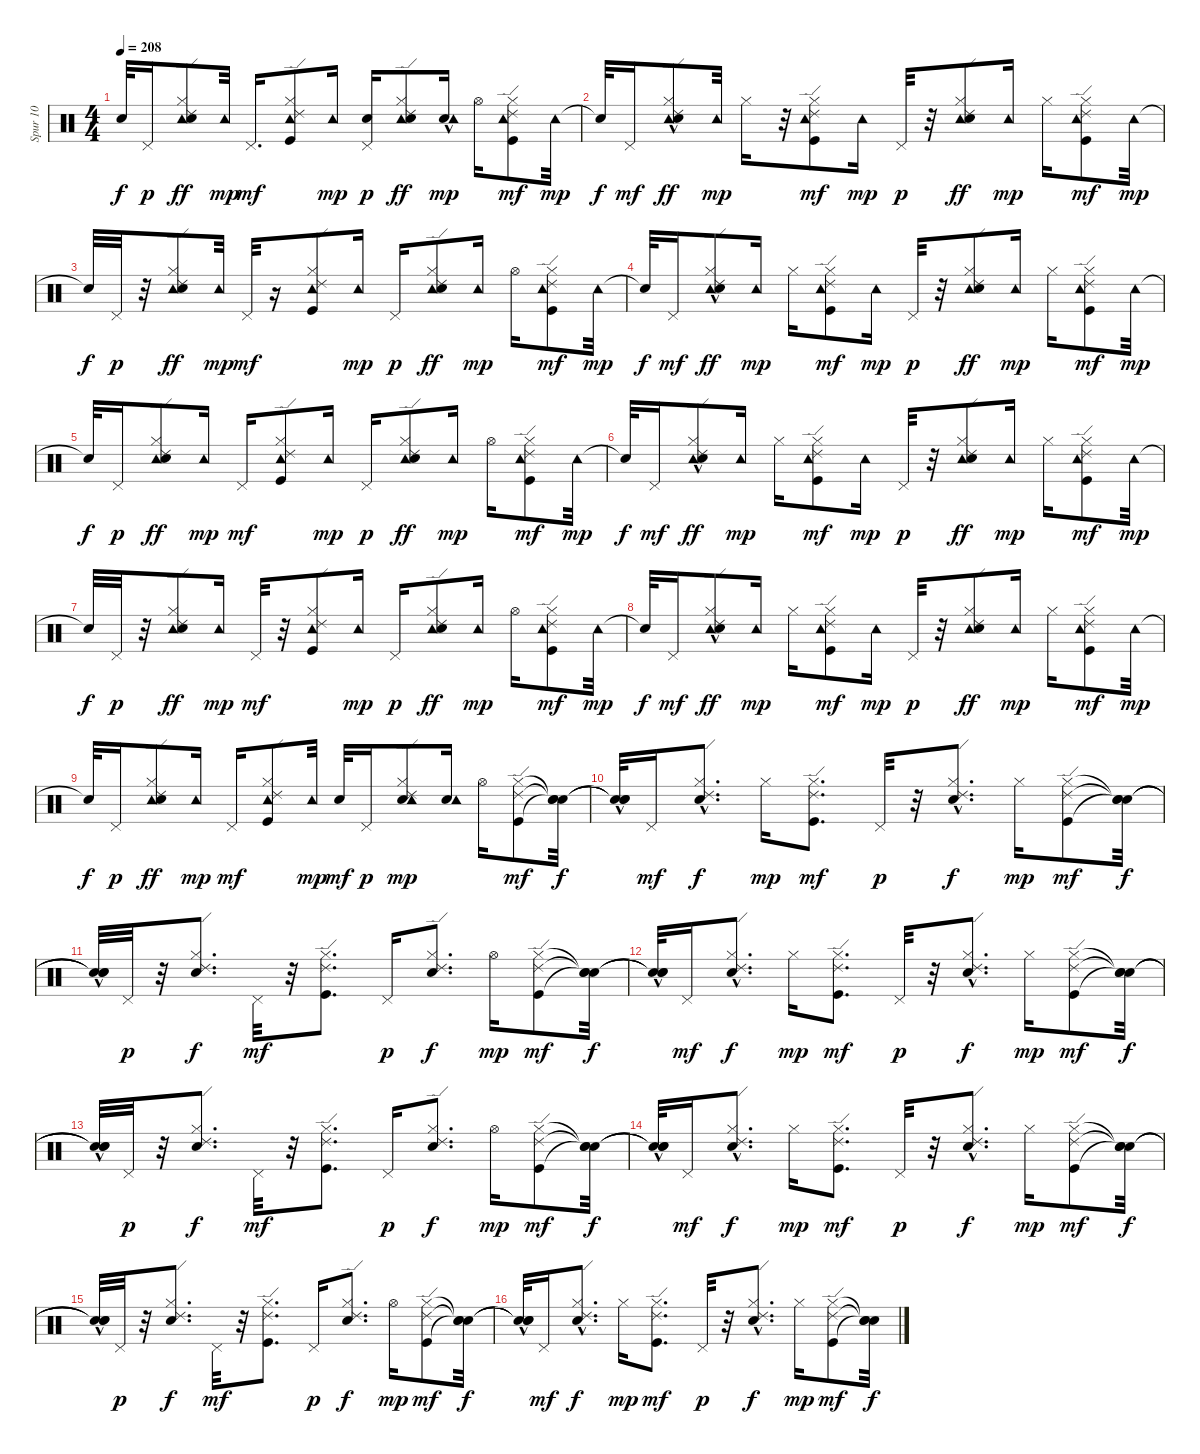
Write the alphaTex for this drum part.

\track ("Spur 10" "Spur 10") {instrument percussion}
\staff {score}
\articulation defaults
\ts (4 4)
\tempo 208
\clef neutral
\ks c "Snare (hit)"{t}.32{dy f} "Pedal Hi-Hat (hit)".16{dy p}
("Tambourine (hit)" "Hi-Hat (closed)" "Electric Snare (hit)" "Ride (edge) 2").8{dy ff} "Tambourine (hit)".32{dy mp} "Pedal Hi-Hat (hit)".16{d dy mf} ("Tambourine (hit)" "Hi-Hat (closed)" "Kick (hit)" "Ride (edge) 2").8 "Tambourine (hit)".16{dy mp} ("Electric Snare (hit)" "Pedal Hi-Hat (hit)").16{dy p} ("Tambourine (hit)" "Hi-Hat (closed)" "Electric Snare (hit)" "Ride (edge) 2").8{dy ff} ("Electric Snare (hit)"{hac} "Tambourine (hit)").16{dy mp} "Hi-Hat (open)".16 ("Tambourine (hit)" "Hi-Hat (closed)" "Kick (hit)" "Ride (edge) 2").8{dy mf} "Tambourine (hit)".32{dy mp} |
"Snare (hit)"{t}.32{dy f} "Pedal Hi-Hat (hit)".16{dy mf} ("Tambourine (hit)" "Hi-Hat (closed)"{hac} "Electric Snare (hit)" "Ride (edge) 2").8{dy ff} "Tambourine (hit)".32{dy mp} "Hi-Hat (closed)".16 r.32 ("Tambourine (hit)" "Hi-Hat (closed)" "Kick (hit)" "Ride (edge) 2").8{dy mf} "Tambourine (hit)".16{dy mp} "Pedal Hi-Hat (hit)".32{dy p} r.32 ("Tambourine (hit)" "Hi-Hat (closed)" "Electric Snare (hit)" "Ride (edge) 2").8{dy ff} "Tambourine (hit)".16{dy mp} "Hi-Hat (closed)".16 ("Tambourine (hit)" "Hi-Hat (closed)" "Kick (hit)" "Ride (edge) 2").8{dy mf} "Tambourine (hit)".32{dy mp} |
"Snare (hit)"{t}.32{dy f} "Pedal Hi-Hat (hit)".32{dy p} r.32 ("Tambourine (hit)" "Hi-Hat (closed)" "Electric Snare (hit)" "Ride (edge) 2").8{dy ff} "Tambourine (hit)".32{dy mp} "Pedal Hi-Hat (hit)".32{dy mf} r.16 ("Tambourine (hit)" "Hi-Hat (closed)" "Kick (hit)" "Ride (edge) 2").8 "Tambourine (hit)".16{dy mp} "Pedal Hi-Hat (hit)".16{dy p} ("Tambourine (hit)" "Hi-Hat (closed)" "Electric Snare (hit)" "Ride (edge) 2").8{dy ff} "Tambourine (hit)".16{dy mp} "Hi-Hat (open)".16 ("Tambourine (hit)" "Hi-Hat (closed)" "Kick (hit)" "Ride (edge) 2").8{dy mf} "Tambourine (hit)".32{dy mp} |
"Snare (hit)"{t}.32{dy f} "Pedal Hi-Hat (hit)".16{dy mf} ("Tambourine (hit)" "Hi-Hat (closed)"{hac} "Electric Snare (hit)" "Ride (edge) 2").8{dy ff} "Tambourine (hit)".16{dy mp} "Hi-Hat (closed)".16 ("Tambourine (hit)" "Hi-Hat (closed)" "Kick (hit)" "Ride (edge) 2").8{dy mf} "Tambourine (hit)".16{dy mp} "Pedal Hi-Hat (hit)".32{dy p} r.32 ("Tambourine (hit)" "Hi-Hat (closed)" "Electric Snare (hit)" "Ride (edge) 2").8{dy ff} "Tambourine (hit)".16{dy mp} "Hi-Hat (closed)".16 ("Tambourine (hit)" "Hi-Hat (closed)" "Kick (hit)" "Ride (edge) 2").8{dy mf} "Tambourine (hit)".32{dy mp} |
"Snare (hit)"{t}.32{dy f} "Pedal Hi-Hat (hit)".16{dy p} ("Tambourine (hit)" "Hi-Hat (closed)" "Electric Snare (hit)" "Ride (edge) 2").8{dy ff} "Tambourine (hit)".16{dy mp} "Pedal Hi-Hat (hit)".16{dy mf} ("Tambourine (hit)" "Hi-Hat (closed)" "Kick (hit)" "Ride (edge) 2").8 "Tambourine (hit)".16{dy mp} "Pedal Hi-Hat (hit)".16{dy p} ("Tambourine (hit)" "Hi-Hat (closed)" "Electric Snare (hit)" "Ride (edge) 2").8{dy ff} "Tambourine (hit)".16{dy mp} "Hi-Hat (open)".16 ("Tambourine (hit)" "Hi-Hat (closed)" "Kick (hit)" "Ride (edge) 2").8{dy mf} "Tambourine (hit)".32{dy mp} |
"Snare (hit)"{t}.32{dy f} "Pedal Hi-Hat (hit)".16{dy mf} ("Tambourine (hit)" "Hi-Hat (closed)"{hac} "Electric Snare (hit)" "Ride (edge) 2").8{dy ff} "Tambourine (hit)".16{dy mp} "Hi-Hat (closed)".16 ("Tambourine (hit)" "Hi-Hat (closed)" "Kick (hit)" "Ride (edge) 2").8{dy mf} "Tambourine (hit)".16{dy mp} "Pedal Hi-Hat (hit)".32{dy p} r.32 ("Tambourine (hit)" "Hi-Hat (closed)" "Electric Snare (hit)" "Ride (edge) 2").8{dy ff} "Tambourine (hit)".16{dy mp} "Hi-Hat (closed)".16 ("Tambourine (hit)" "Hi-Hat (closed)" "Kick (hit)" "Ride (edge) 2").8{dy mf} "Tambourine (hit)".32{dy mp} |
"Snare (hit)"{t}.32{dy f} "Pedal Hi-Hat (hit)".32{dy p} r.32 ("Tambourine (hit)" "Hi-Hat (closed)" "Electric Snare (hit)" "Ride (edge) 2").8{dy ff} "Tambourine (hit)".16{dy mp} "Pedal Hi-Hat (hit)".32{dy mf} r.32 ("Tambourine (hit)" "Hi-Hat (closed)" "Kick (hit)" "Ride (edge) 2").8 "Tambourine (hit)".16{dy mp} "Pedal Hi-Hat (hit)".16{dy p} ("Tambourine (hit)" "Hi-Hat (closed)" "Electric Snare (hit)" "Ride (edge) 2").8{dy ff} "Tambourine (hit)".16{dy mp} "Hi-Hat (open)".16 ("Tambourine (hit)" "Hi-Hat (closed)" "Kick (hit)" "Ride (edge) 2").8{dy mf} "Tambourine (hit)".32{dy mp} |
"Snare (hit)"{t}.32{dy f} "Pedal Hi-Hat (hit)".16{dy mf} ("Tambourine (hit)" "Hi-Hat (closed)"{hac} "Electric Snare (hit)" "Ride (edge) 2").8{dy ff} "Tambourine (hit)".16{dy mp} "Hi-Hat (closed)".16 ("Tambourine (hit)" "Hi-Hat (closed)" "Kick (hit)" "Ride (edge) 2").8{dy mf} "Tambourine (hit)".16{dy mp} "Pedal Hi-Hat (hit)".32{dy p} r.32 ("Tambourine (hit)" "Hi-Hat (closed)" "Electric Snare (hit)" "Ride (edge) 2").8{dy ff} "Tambourine (hit)".16{dy mp} "Hi-Hat (closed)".16 ("Tambourine (hit)" "Hi-Hat (closed)" "Kick (hit)" "Ride (edge) 2").8{dy mf} "Tambourine (hit)".32{dy mp} |
"Snare (hit)"{t}.32{dy f} "Pedal Hi-Hat (hit)".16{dy p} ("Tambourine (hit)" "Hi-Hat (closed)" "Electric Snare (hit)" "Ride (edge) 2").8{dy ff} "Tambourine (hit)".16{dy mp} "Pedal Hi-Hat (hit)".16{dy mf} ("Tambourine (hit)" "Hi-Hat (closed)" "Kick (hit)" "Ride (edge) 2").8 "Tambourine (hit)".32{dy mp} "Electric Snare (hit)".32{dy mf} "Pedal Hi-Hat (hit)".16{dy p} ("Electric Snare (hit)" "Tambourine (hit)" "Hi-Hat (closed)" "Ride (edge) 2").8{dy mp} ("Electric Snare (hit)" "Tambourine (hit)").16 "Hi-Hat (open)".16 ("Hi-Hat (closed)" "Kick (hit)" "Ride (edge) 2").8{dy mf} ("Snare (hit)"{t} "Snare (hit)"{t} "Snare (hit)"{t}).32{dy f} |
("Snare (hit)"{hac t} "Snare (hit)"{t} "Snare (hit)"{hac t}).32 "Pedal Hi-Hat (hit)".16{dy mf} ("Snare (hit) 2" "Hi-Hat (closed)"{hac} "Ride (edge) 2").8{d dy f} "Hi-Hat (closed)".16{dy mp} ("Hi-Hat (closed)" "Kick (hit)" "Ride (edge) 2").8{d dy mf} "Pedal Hi-Hat (hit)".32{dy p} r.32 ("Snare (hit) 2" "Hi-Hat (closed)"{hac} "Ride (edge) 2").8{d dy f} "Hi-Hat (closed)".16{dy mp} ("Hi-Hat (closed)" "Kick (hit)" "Ride (edge) 2").8{dy mf} ("Snare (hit)"{t} "Snare (hit)"{t} "Snare (hit)"{t}).32{dy f} |
("Snare (hit)"{hac t} "Snare (hit)"{t} "Snare (hit)"{hac t}).32 "Pedal Hi-Hat (hit)".32{dy p} r.32 ("Snare (hit) 2" "Hi-Hat (closed)" "Ride (edge) 2").8{d dy f} "Pedal Hi-Hat (hit)".32{dy mf} r.32 ("Hi-Hat (closed)" "Kick (hit)" "Ride (edge) 2").8{d} "Pedal Hi-Hat (hit)".16{dy p} ("Snare (hit) 2" "Hi-Hat (closed)" "Ride (edge) 2").8{d dy f} "Hi-Hat (open)".16{dy mp} ("Hi-Hat (closed)" "Kick (hit)" "Ride (edge) 2").8{dy mf} ("Snare (hit)"{t} "Snare (hit)"{t} "Snare (hit)"{t}).32{dy f} |
("Snare (hit)"{hac t} "Snare (hit)"{t} "Snare (hit)"{hac t}).32 "Pedal Hi-Hat (hit)".16{dy mf} ("Snare (hit) 2" "Hi-Hat (closed)"{hac} "Ride (edge) 2").8{d dy f} "Hi-Hat (closed)".16{dy mp} ("Hi-Hat (closed)" "Kick (hit)" "Ride (edge) 2").8{d dy mf} "Pedal Hi-Hat (hit)".32{dy p} r.32 ("Snare (hit) 2" "Hi-Hat (closed)"{hac} "Ride (edge) 2").8{d dy f} "Hi-Hat (closed)".16{dy mp} ("Hi-Hat (closed)" "Kick (hit)" "Ride (edge) 2").8{dy mf} ("Snare (hit)"{t} "Snare (hit)"{t} "Snare (hit)"{t}).32{dy f} |
("Snare (hit)"{hac t} "Snare (hit)"{t} "Snare (hit)"{hac t}).32 "Pedal Hi-Hat (hit)".32{dy p} r.32 ("Snare (hit) 2" "Hi-Hat (closed)" "Ride (edge) 2").8{d dy f} "Pedal Hi-Hat (hit)".32{dy mf} r.32 ("Hi-Hat (closed)" "Kick (hit)" "Ride (edge) 2").8{d} "Pedal Hi-Hat (hit)".16{dy p} ("Snare (hit) 2" "Hi-Hat (closed)" "Ride (edge) 2").8{d dy f} "Hi-Hat (open)".16{dy mp} ("Hi-Hat (closed)" "Kick (hit)" "Ride (edge) 2").8{dy mf} ("Snare (hit)"{t} "Snare (hit)"{t} "Snare (hit)"{t}).32{dy f} |
("Snare (hit)"{hac t} "Snare (hit)"{t} "Snare (hit)"{hac t}).32 "Pedal Hi-Hat (hit)".16{dy mf} ("Snare (hit) 2" "Hi-Hat (closed)"{hac} "Ride (edge) 2").8{d dy f} "Hi-Hat (closed)".16{dy mp} ("Hi-Hat (closed)" "Kick (hit)" "Ride (edge) 2").8{d dy mf} "Pedal Hi-Hat (hit)".32{dy p} r.32 ("Snare (hit) 2" "Hi-Hat (closed)"{hac} "Ride (edge) 2").8{d dy f} "Hi-Hat (closed)".16{dy mp} ("Hi-Hat (closed)" "Kick (hit)" "Ride (edge) 2").8{dy mf} ("Snare (hit)"{t} "Snare (hit)"{t} "Snare (hit)"{t}).32{dy f} |
("Snare (hit)"{hac t} "Snare (hit)"{t} "Snare (hit)"{hac t}).32 "Pedal Hi-Hat (hit)".32{dy p} r.32 ("Snare (hit) 2" "Hi-Hat (closed)" "Ride (edge) 2").8{d dy f} "Pedal Hi-Hat (hit)".32{dy mf} r.32 ("Hi-Hat (closed)" "Kick (hit)" "Ride (edge) 2").8{d} "Pedal Hi-Hat (hit)".16{dy p} ("Snare (hit) 2" "Hi-Hat (closed)" "Ride (edge) 2").8{d dy f} "Hi-Hat (open)".16{dy mp} ("Hi-Hat (closed)" "Kick (hit)" "Ride (edge) 2").8{dy mf} ("Snare (hit)"{t} "Snare (hit)"{t} "Snare (hit)"{t}).32{dy f} |
("Snare (hit)"{hac t} "Snare (hit)"{t} "Snare (hit)"{hac t}).32 "Pedal Hi-Hat (hit)".16{dy mf} ("Snare (hit) 2" "Hi-Hat (closed)"{hac} "Ride (edge) 2").8{d dy f} "Hi-Hat (closed)".16{dy mp} ("Hi-Hat (closed)" "Kick (hit)" "Ride (edge) 2").8{d dy mf} "Pedal Hi-Hat (hit)".32{dy p} r.32 ("Snare (hit) 2" "Hi-Hat (closed)"{hac} "Ride (edge) 2").8{d dy f} "Hi-Hat (closed)".16{dy mp} ("Hi-Hat (closed)" "Kick (hit)" "Ride (edge) 2").8{dy mf} ("Snare (hit)"{t} "Snare (hit)"{t} "Snare (hit)"{t}).32{dy f}
